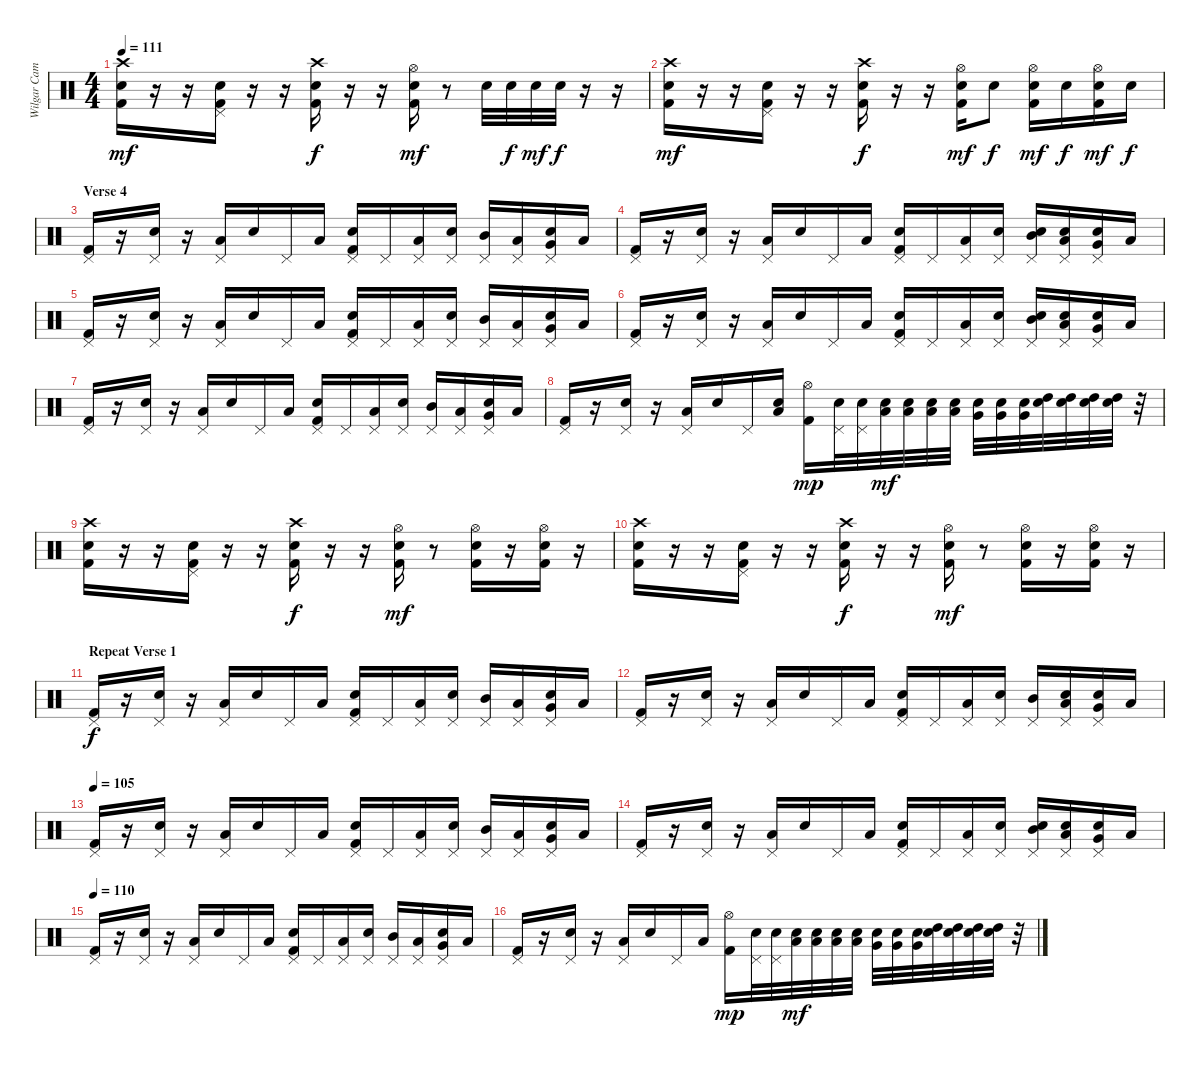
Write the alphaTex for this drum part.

\track ("Wilgar Campbell" "Wilgar Cam") {instrument percussion}
\staff {score}
\articulation defaults
\ts (4 4)
\tempo 111
\clef neutral
\ks c
("Crash high (hit)" "Snare (hit) 2" "Kick (hit) 2").16{dy mf} r.16 r.16 ("Pedal Hi-Hat (hit)" "Snare (hit) 2" "Kick (hit) 2").16 r.16 r.16 ("Crash high (hit)" "Snare (hit) 2" "Kick (hit) 2").16{dy f} r.16 r.16 ("Hi-Hat (open)" "Snare (hit) 2" "Kick (hit) 2").16{dy mf} r.8 "Snare (hit) 2".32 "Snare (hit) 2".32{dy f} "Snare (hit) 2".32{dy mf} "Snare (hit) 2".32{dy f} r.16 r.16 |
("Crash high (hit)" "Snare (hit) 2" "Kick (hit) 2").16{dy mf} r.16 r.16 ("Pedal Hi-Hat (hit)" "Snare (hit) 2" "Kick (hit) 2").16 r.16 r.16 ("Crash high (hit)" "Snare (hit) 2" "Kick (hit) 2").16{dy f} r.16 r.16 ("Hi-Hat (open)" "Snare (hit) 2" "Kick (hit) 2").16{dy mf} "Snare (hit) 2".8{dy f} ("Hi-Hat (open)" "Snare (hit) 2" "Kick (hit) 2").16{dy mf} "Snare (hit) 2".16{dy f} ("Hi-Hat (open)" "Snare (hit) 2" "Kick (hit) 2").16{dy mf} "Snare (hit) 2".16{dy f} |
\section ("" "Verse 4")
("Pedal Hi-Hat (hit)" "Kick (hit) 2").16 r.16 ("Snare (hit) 2" "Pedal Hi-Hat (hit)").16 r.16 ("Low Tom (hit)" "Pedal Hi-Hat (hit)").16 "Snare (hit) 2".16 "Pedal Hi-Hat (hit)".16 "Low Tom (hit)".16 ("Snare (hit) 2" "Pedal Hi-Hat (hit)" "Kick (hit) 2").16 "Pedal Hi-Hat (hit)".16 ("Low Tom (hit)" "Pedal Hi-Hat (hit)").16 ("Snare (hit) 2" "Pedal Hi-Hat (hit)").16 ("Mid Tom (hit)" "Pedal Hi-Hat (hit)").16 ("Low Tom (hit)" "Pedal Hi-Hat (hit)").16 ("Very Low Tom (hit)" "Snare (hit) 2" "Pedal Hi-Hat (hit)").16 "Low Tom (hit)".16 |
("Pedal Hi-Hat (hit)" "Kick (hit) 2").16 r.16 ("Snare (hit) 2" "Pedal Hi-Hat (hit)").16 r.16 ("Low Tom (hit)" "Pedal Hi-Hat (hit)").16 "Snare (hit) 2".16 "Pedal Hi-Hat (hit)".16 "Low Tom (hit)".16 ("Snare (hit) 2" "Pedal Hi-Hat (hit)" "Kick (hit) 2").16 "Pedal Hi-Hat (hit)".16 ("Low Tom (hit)" "Pedal Hi-Hat (hit)").16 ("Snare (hit) 2" "Pedal Hi-Hat (hit)").16 ("Mid Tom (hit)" "Electric Snare (hit)" "Pedal Hi-Hat (hit)").16 ("Low Tom (hit)" "Electric Snare (hit)" "Pedal Hi-Hat (hit)").16 ("Very Low Tom (hit)" "Snare (hit) 2" "Pedal Hi-Hat (hit)").16 "Low Tom (hit)".16 |
("Pedal Hi-Hat (hit)" "Kick (hit) 2").16 r.16 ("Snare (hit) 2" "Pedal Hi-Hat (hit)").16 r.16 ("Low Tom (hit)" "Pedal Hi-Hat (hit)").16 "Snare (hit) 2".16 "Pedal Hi-Hat (hit)".16 "Low Tom (hit)".16 ("Snare (hit) 2" "Pedal Hi-Hat (hit)" "Kick (hit) 2").16 "Pedal Hi-Hat (hit)".16 ("Low Tom (hit)" "Pedal Hi-Hat (hit)").16 ("Snare (hit) 2" "Pedal Hi-Hat (hit)").16 ("Mid Tom (hit)" "Pedal Hi-Hat (hit)").16 ("Low Tom (hit)" "Pedal Hi-Hat (hit)").16 ("Very Low Tom (hit)" "Snare (hit) 2" "Pedal Hi-Hat (hit)").16 "Low Tom (hit)".16 |
("Pedal Hi-Hat (hit)" "Kick (hit) 2").16 r.16 ("Snare (hit) 2" "Pedal Hi-Hat (hit)").16 r.16 ("Low Tom (hit)" "Pedal Hi-Hat (hit)").16 "Snare (hit) 2".16 "Pedal Hi-Hat (hit)".16 "Low Tom (hit)".16 ("Snare (hit) 2" "Pedal Hi-Hat (hit)" "Kick (hit) 2").16 "Pedal Hi-Hat (hit)".16 ("Low Tom (hit)" "Pedal Hi-Hat (hit)").16 ("Snare (hit) 2" "Pedal Hi-Hat (hit)").16 ("Mid Tom (hit)" "Electric Snare (hit)" "Pedal Hi-Hat (hit)").16 ("Low Tom (hit)" "Electric Snare (hit)" "Pedal Hi-Hat (hit)").16 ("Very Low Tom (hit)" "Snare (hit) 2" "Pedal Hi-Hat (hit)").16 "Low Tom (hit)".16 |
("Pedal Hi-Hat (hit)" "Kick (hit) 2").16 r.16 ("Snare (hit) 2" "Pedal Hi-Hat (hit)").16 r.16 ("Low Tom (hit)" "Pedal Hi-Hat (hit)").16 "Snare (hit) 2".16 "Pedal Hi-Hat (hit)".16 "Low Tom (hit)".16 ("Snare (hit) 2" "Pedal Hi-Hat (hit)" "Kick (hit) 2").16 "Pedal Hi-Hat (hit)".16 ("Low Tom (hit)" "Pedal Hi-Hat (hit)").16 ("Snare (hit) 2" "Pedal Hi-Hat (hit)").16 ("Mid Tom (hit)" "Pedal Hi-Hat (hit)").16 ("Low Tom (hit)" "Pedal Hi-Hat (hit)").16 ("Very Low Tom (hit)" "Snare (hit) 2" "Pedal Hi-Hat (hit)").16 "Low Tom (hit)".16 |
("Pedal Hi-Hat (hit)" "Kick (hit) 2").16 r.16 ("Snare (hit) 2" "Pedal Hi-Hat (hit)").16 r.16 ("Low Tom (hit)" "Pedal Hi-Hat (hit)").16 "Snare (hit) 2".16 "Pedal Hi-Hat (hit)".16 ("Low Tom (hit)" "Snare (hit) 2").16 ("Hi-Hat (open)" "Kick (hit) 2").16{dy mp} ("Electric Snare (hit)" "Pedal Hi-Hat (hit)").32 ("Electric Snare (hit)" "Pedal Hi-Hat (hit)").32 ("Snare (hit) 2" "Low Tom (hit)").32{dy mf} ("Snare (hit) 2" "Low Tom (hit)").32 ("Snare (hit) 2" "Low Tom (hit)").32 ("Snare (hit) 2" "Low Tom (hit)").32 ("Electric Snare (hit)" "Very Low Tom (hit)").32 ("Electric Snare (hit)" "Very Low Tom (hit)").32 ("Electric Snare (hit)" "Very Low Tom (hit)").32 ("Snare (hit) 2" "High Tom (hit)").32 ("Snare (hit) 2" "High Tom (hit)").32 ("Snare (hit) 2" "High Tom (hit)").32 ("Snare (hit) 2" "High Tom (hit)").32 r.32 |
("Crash high (hit)" "Snare (hit) 2" "Kick (hit) 2").16 r.16 r.16 ("Pedal Hi-Hat (hit)" "Snare (hit) 2" "Kick (hit) 2").16 r.16 r.16 ("Crash high (hit)" "Snare (hit) 2" "Kick (hit) 2").16{dy f} r.16 r.16 ("Hi-Hat (open)" "Snare (hit) 2" "Kick (hit) 2").16{dy mf} r.8 ("Hi-Hat (open)" "Snare (hit) 2" "Kick (hit) 2").16 r.16 ("Hi-Hat (open)" "Snare (hit) 2" "Kick (hit) 2").16 r.16 |
("Crash high (hit)" "Snare (hit) 2" "Kick (hit) 2").16 r.16 r.16 ("Pedal Hi-Hat (hit)" "Snare (hit) 2" "Kick (hit) 2").16 r.16 r.16 ("Crash high (hit)" "Snare (hit) 2" "Kick (hit) 2").16{dy f} r.16 r.16 ("Hi-Hat (open)" "Snare (hit) 2" "Kick (hit) 2").16{dy mf} r.8 ("Hi-Hat (open)" "Snare (hit) 2" "Kick (hit) 2").16 r.16 ("Hi-Hat (open)" "Snare (hit) 2" "Kick (hit) 2").16 r.16 |
\section ("" "Repeat Verse 1")
("Pedal Hi-Hat (hit)" "Kick (hit) 2").16{dy f} r.16 ("Snare (hit) 2" "Pedal Hi-Hat (hit)").16 r.16 ("Low Tom (hit)" "Pedal Hi-Hat (hit)").16 "Snare (hit) 2".16 "Pedal Hi-Hat (hit)".16 "Low Tom (hit)".16 ("Snare (hit) 2" "Pedal Hi-Hat (hit)" "Kick (hit) 2").16 "Pedal Hi-Hat (hit)".16 ("Low Tom (hit)" "Pedal Hi-Hat (hit)").16 ("Snare (hit) 2" "Pedal Hi-Hat (hit)").16 ("Mid Tom (hit)" "Pedal Hi-Hat (hit)").16 ("Low Tom (hit)" "Pedal Hi-Hat (hit)").16 ("Very Low Tom (hit)" "Snare (hit) 2" "Pedal Hi-Hat (hit)").16 "Low Tom (hit)".16 |
("Pedal Hi-Hat (hit)" "Kick (hit) 2").16 r.16 ("Snare (hit) 2" "Pedal Hi-Hat (hit)").16 r.16 ("Low Tom (hit)" "Pedal Hi-Hat (hit)").16 "Snare (hit) 2".16 "Pedal Hi-Hat (hit)".16 "Low Tom (hit)".16 ("Snare (hit) 2" "Pedal Hi-Hat (hit)" "Kick (hit) 2").16 "Pedal Hi-Hat (hit)".16 ("Low Tom (hit)" "Pedal Hi-Hat (hit)").16 ("Snare (hit) 2" "Pedal Hi-Hat (hit)").16 ("Mid Tom (hit)" "Pedal Hi-Hat (hit)").16 ("Low Tom (hit)" "Snare (hit) 2" "Pedal Hi-Hat (hit)").16 ("Very Low Tom (hit)" "Snare (hit) 2" "Pedal Hi-Hat (hit)").16 "Low Tom (hit)".16 |
\tempo 105
("Pedal Hi-Hat (hit)" "Kick (hit) 2").16 r.16 ("Snare (hit) 2" "Pedal Hi-Hat (hit)").16 r.16 ("Low Tom (hit)" "Pedal Hi-Hat (hit)").16 "Snare (hit) 2".16 "Pedal Hi-Hat (hit)".16 "Low Tom (hit)".16 ("Snare (hit) 2" "Pedal Hi-Hat (hit)" "Kick (hit) 2").16 "Pedal Hi-Hat (hit)".16 ("Low Tom (hit)" "Pedal Hi-Hat (hit)").16 ("Snare (hit) 2" "Pedal Hi-Hat (hit)").16 ("Mid Tom (hit)" "Pedal Hi-Hat (hit)").16 ("Low Tom (hit)" "Pedal Hi-Hat (hit)").16 ("Very Low Tom (hit)" "Snare (hit) 2" "Pedal Hi-Hat (hit)").16 "Low Tom (hit)".16 |
("Pedal Hi-Hat (hit)" "Kick (hit) 2").16 r.16 ("Snare (hit) 2" "Pedal Hi-Hat (hit)").16 r.16 ("Low Tom (hit)" "Pedal Hi-Hat (hit)").16 "Snare (hit) 2".16 "Pedal Hi-Hat (hit)".16 "Low Tom (hit)".16 ("Snare (hit) 2" "Pedal Hi-Hat (hit)" "Kick (hit) 2").16 "Pedal Hi-Hat (hit)".16 ("Low Tom (hit)" "Pedal Hi-Hat (hit)").16 ("Snare (hit) 2" "Pedal Hi-Hat (hit)").16 ("Mid Tom (hit)" "Electric Snare (hit)" "Pedal Hi-Hat (hit)").16 ("Low Tom (hit)" "Electric Snare (hit)" "Pedal Hi-Hat (hit)").16 ("Very Low Tom (hit)" "Snare (hit) 2" "Pedal Hi-Hat (hit)").16 "Low Tom (hit)".16 |
\tempo 110
("Pedal Hi-Hat (hit)" "Kick (hit) 2").16 r.16 ("Snare (hit) 2" "Pedal Hi-Hat (hit)").16 r.16 ("Low Tom (hit)" "Pedal Hi-Hat (hit)").16 "Snare (hit) 2".16 "Pedal Hi-Hat (hit)".16 "Low Tom (hit)".16 ("Snare (hit) 2" "Pedal Hi-Hat (hit)" "Kick (hit) 2").16 "Pedal Hi-Hat (hit)".16 ("Low Tom (hit)" "Pedal Hi-Hat (hit)").16 ("Snare (hit) 2" "Pedal Hi-Hat (hit)").16 ("Mid Tom (hit)" "Pedal Hi-Hat (hit)").16 ("Low Tom (hit)" "Pedal Hi-Hat (hit)").16 ("Very Low Tom (hit)" "Snare (hit) 2" "Pedal Hi-Hat (hit)").16 "Low Tom (hit)".16 |
("Pedal Hi-Hat (hit)" "Kick (hit) 2").16 r.16 ("Snare (hit) 2" "Pedal Hi-Hat (hit)").16 r.16 ("Low Tom (hit)" "Pedal Hi-Hat (hit)").16 "Snare (hit) 2".16 "Pedal Hi-Hat (hit)".16 "Low Tom (hit)".16 ("Hi-Hat (open)" "Kick (hit) 2").16{dy mp} ("Electric Snare (hit)" "Pedal Hi-Hat (hit)").32 ("Electric Snare (hit)" "Pedal Hi-Hat (hit)").32 ("Snare (hit) 2" "Low Tom (hit)").32{dy mf} ("Snare (hit) 2" "Low Tom (hit)").32 ("Snare (hit) 2" "Low Tom (hit)").32 ("Snare (hit) 2" "Low Tom (hit)").32 ("Electric Snare (hit)" "Very Low Tom (hit)").32 ("Electric Snare (hit)" "Very Low Tom (hit)").32 ("Electric Snare (hit)" "Very Low Tom (hit)").32 ("Snare (hit) 2" "High Tom (hit)").32 ("Snare (hit) 2" "High Tom (hit)").32 ("Snare (hit) 2" "High Tom (hit)").32 ("Snare (hit) 2" "High Tom (hit)").32 r.32
